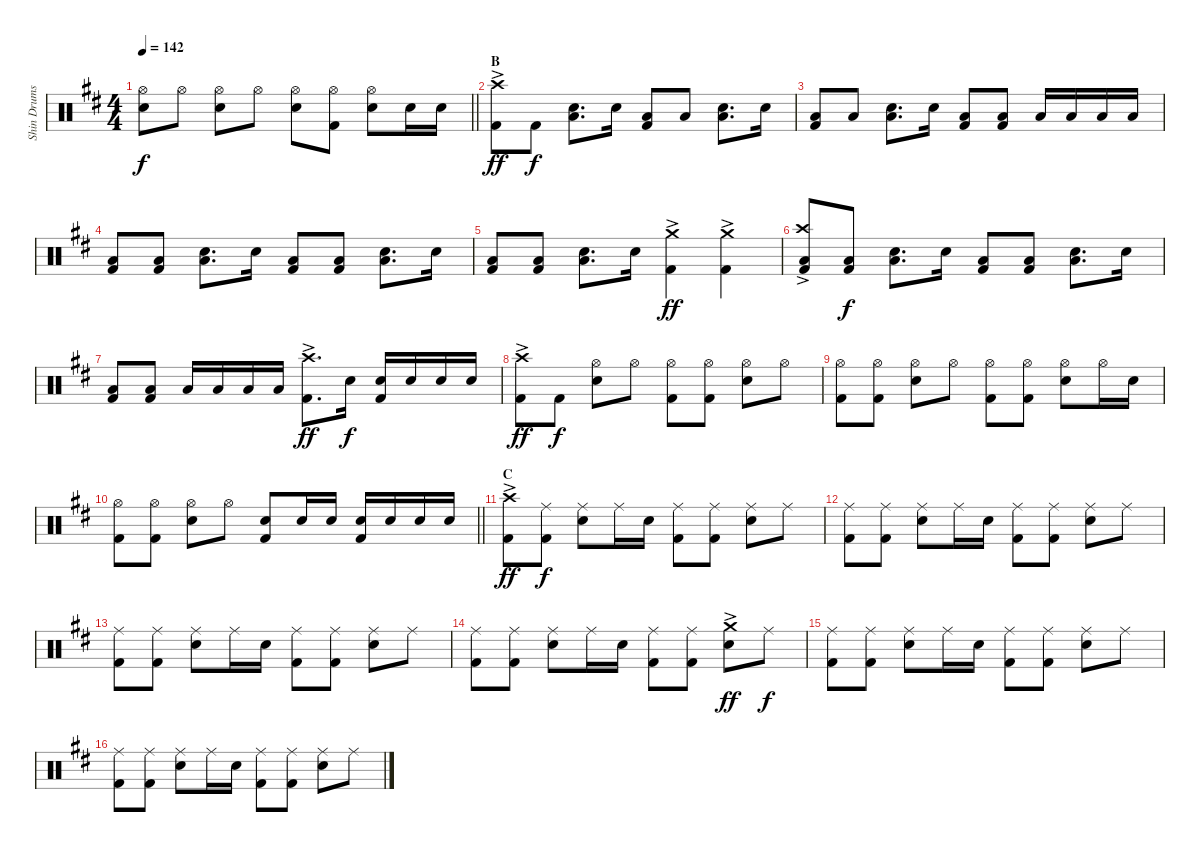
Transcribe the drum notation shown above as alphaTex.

\track ("Shin Drums" "Shin Drums") {instrument percussion}
\staff {score}
\articulation defaults
\ts (4 4)
\tempo 142
\clef neutral
\barLineRight lightlight
\ks d
("Hi-Hat (open)" "Snare (hit) 2").8{dy f} "Hi-Hat (open)".8 ("Hi-Hat (open)" "Snare (hit) 2").8 "Hi-Hat (open)".8 ("Hi-Hat (open)" "Snare (hit) 2").8 ("Hi-Hat (open)" "Kick (hit) 2").8 ("Hi-Hat (open)" "Snare (hit) 2").8 "Snare (hit) 2".16 "Snare (hit) 2".16 |
\section ("" "B")
("Crash high (hit)"{ac} "Kick (hit) 2").8{dy ff} "Kick (hit) 2".8{dy f} ("Snare (hit) 2" "Low Floor Tom (hit)").8{d} "Snare (hit) 2".16 ("Low Floor Tom (hit)" "Kick (hit) 2").8 "Low Floor Tom (hit)".8 ("Snare (hit) 2" "Low Floor Tom (hit)").8{d} "Snare (hit) 2".16 |
("Low Floor Tom (hit)" "Kick (hit) 2").8 "Low Floor Tom (hit)".8 ("Snare (hit) 2" "Low Floor Tom (hit)").8{d} "Snare (hit) 2".16 ("Low Floor Tom (hit)" "Kick (hit) 2").8 ("Low Floor Tom (hit)" "Kick (hit) 2").8 "Low Floor Tom (hit)".16 "Low Tom (hit)".16 "Low Floor Tom (hit)".16 "Low Floor Tom (hit)".16 |
("Low Floor Tom (hit)" "Kick (hit) 2").8 ("Low Floor Tom (hit)" "Kick (hit) 2").8 ("Snare (hit) 2" "Low Floor Tom (hit)").8{d} "Snare (hit) 2".16 ("Low Floor Tom (hit)" "Kick (hit) 2").8 ("Low Floor Tom (hit)" "Kick (hit) 2").8 ("Snare (hit) 2" "Low Floor Tom (hit)").8{d} "Snare (hit) 2".16 |
("Low Floor Tom (hit)" "Kick (hit) 2").8 ("Low Floor Tom (hit)" "Kick (hit) 2").8 ("Snare (hit) 2" "Low Floor Tom (hit)").8{d} "Snare (hit) 2".16 ("Crash medium (hit)"{ac} "Kick (hit) 2").4{dy ff} ("Crash medium (hit)"{ac} "Kick (hit) 2").4 |
("Crash high (hit)"{ac} "Low Floor Tom (hit)" "Kick (hit) 2").8 ("Low Floor Tom (hit)" "Kick (hit) 2").8{dy f} ("Snare (hit) 2" "Low Floor Tom (hit)").8{d} "Snare (hit) 2".16 ("Low Floor Tom (hit)" "Kick (hit) 2").8 ("Low Floor Tom (hit)" "Kick (hit) 2").8 ("Snare (hit) 2" "Low Floor Tom (hit)").8{d} "Snare (hit) 2".16 |
("Low Floor Tom (hit)" "Kick (hit) 2").8 ("Low Floor Tom (hit)" "Kick (hit) 2").8 "Low Floor Tom (hit)".16 "Low Tom (hit)".16 "Low Floor Tom (hit)".16 "Low Floor Tom (hit)".16 ("Crash high (hit)"{ac} "Kick (hit) 2").8{d dy ff} "Snare (hit) 2".16{dy f} ("Snare (hit) 2" "Kick (hit) 2").16 "Snare (hit) 2".16 "Snare (hit) 2".16 "Snare (hit) 2".16 |
("Crash high (hit)"{ac} "Kick (hit) 2").8{dy ff} "Kick (hit) 2".8{dy f} ("Hi-Hat (open)" "Snare (hit) 2").8 "Hi-Hat (open)".8 ("Hi-Hat (open)" "Kick (hit) 2").8 ("Hi-Hat (open)" "Kick (hit) 2").8 ("Hi-Hat (open)" "Snare (hit) 2").8 "Hi-Hat (open)".8 |
("Hi-Hat (open)" "Kick (hit) 2").8 ("Hi-Hat (open)" "Kick (hit) 2").8 ("Hi-Hat (open)" "Snare (hit) 2").8 "Hi-Hat (open)".8 ("Hi-Hat (open)" "Kick (hit) 2").8 ("Hi-Hat (open)" "Kick (hit) 2").8 ("Hi-Hat (open)" "Snare (hit) 2").8 "Hi-Hat (open)".16 "Snare (hit) 2".16 |
\barLineRight lightlight
("Hi-Hat (open)" "Kick (hit) 2").8 ("Hi-Hat (open)" "Kick (hit) 2").8 ("Hi-Hat (open)" "Snare (hit) 2").8 "Hi-Hat (open)".8 ("Snare (hit) 2" "Kick (hit) 2").8 "Snare (hit) 2".16 "Snare (hit) 2".16 ("Snare (hit) 2" "Kick (hit) 2").16 "Snare (hit) 2".16 "Snare (hit) 2".16 "Snare (hit) 2".16 |
\section ("" "C")
("Crash high (hit)"{ac} "Kick (hit) 2").8{dy ff} ("Ride (middle)" "Kick (hit) 2").8{dy f} ("Ride (middle)" "Snare (hit) 2").8 "Ride (middle)".16 "Snare (hit) 2".16 ("Ride (middle)" "Kick (hit) 2").8 ("Ride (middle)" "Kick (hit) 2").8 ("Ride (middle)" "Snare (hit) 2").8 "Ride (middle)".8 |
("Ride (middle)" "Kick (hit) 2").8 ("Ride (middle)" "Kick (hit) 2").8 ("Ride (middle)" "Snare (hit) 2").8 "Ride (middle)".16 "Snare (hit) 2".16 ("Ride (middle)" "Kick (hit) 2").8 ("Ride (middle)" "Kick (hit) 2").8 ("Ride (middle)" "Snare (hit) 2").8 "Ride (middle)".8 |
("Ride (middle)" "Kick (hit) 2").8 ("Ride (middle)" "Kick (hit) 2").8 ("Ride (middle)" "Snare (hit) 2").8 "Ride (middle)".16 "Snare (hit) 2".16 ("Ride (middle)" "Kick (hit) 2").8 ("Ride (middle)" "Kick (hit) 2").8 ("Ride (middle)" "Snare (hit) 2").8 "Ride (middle)".8 |
("Ride (middle)" "Kick (hit) 2").8 ("Ride (middle)" "Kick (hit) 2").8 ("Ride (middle)" "Snare (hit) 2").8 "Ride (middle)".16 "Snare (hit) 2".16 ("Ride (middle)" "Kick (hit) 2").8 ("Ride (middle)" "Kick (hit) 2").8 ("Crash medium (hit)"{ac} "Snare (hit) 2").8{dy ff} "Ride (middle)".8{dy f} |
("Ride (middle)" "Kick (hit) 2").8 ("Ride (middle)" "Kick (hit) 2").8 ("Ride (middle)" "Snare (hit) 2").8 "Ride (middle)".16 "Snare (hit) 2".16 ("Ride (middle)" "Kick (hit) 2").8 ("Ride (middle)" "Kick (hit) 2").8 ("Ride (middle)" "Snare (hit) 2").8 "Ride (middle)".8 |
("Ride (middle)" "Kick (hit) 2").8 ("Ride (middle)" "Kick (hit) 2").8 ("Ride (middle)" "Snare (hit) 2").8 "Ride (middle)".16 "Snare (hit) 2".16 ("Ride (middle)" "Kick (hit) 2").8 ("Ride (middle)" "Kick (hit) 2").8 ("Ride (middle)" "Snare (hit) 2").8 "Ride (middle)".8
